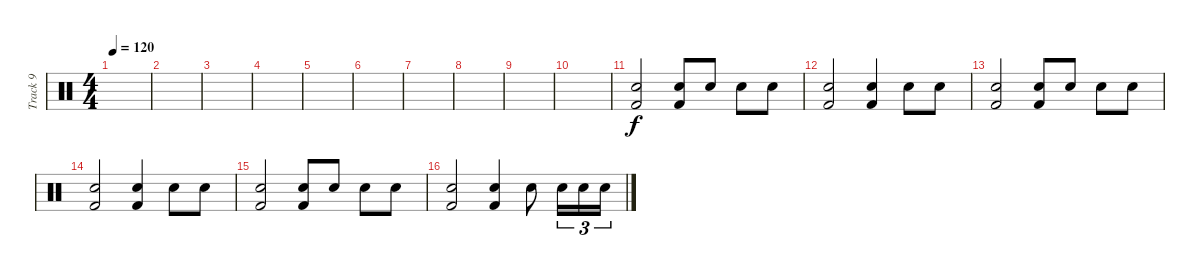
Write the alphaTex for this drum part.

\track ("Track 9" "Track 9") {instrument percussion}
\staff {score}
\articulation defaults
\ts (4 4)
\tempo 120
\clef neutral
\ks c
|
|
|
|
|
|
|
|
|
|
("Electric Snare (hit)" "Kick (hit) 2").2 ("Electric Snare (hit)" "Kick (hit) 2").8 "Electric Snare (hit)".8 "Electric Snare (hit)".8 "Electric Snare (hit)".8 |
("Electric Snare (hit)" "Kick (hit) 2").2 ("Electric Snare (hit)" "Kick (hit) 2").4 "Electric Snare (hit)".8 "Electric Snare (hit)".8 |
("Electric Snare (hit)" "Kick (hit) 2").2 ("Electric Snare (hit)" "Kick (hit) 2").8 "Electric Snare (hit)".8 "Electric Snare (hit)".8 "Electric Snare (hit)".8 |
("Electric Snare (hit)" "Kick (hit) 2").2 ("Electric Snare (hit)" "Kick (hit) 2").4 "Electric Snare (hit)".8 "Electric Snare (hit)".8 |
("Electric Snare (hit)" "Kick (hit) 2").2 ("Electric Snare (hit)" "Kick (hit) 2").8 "Electric Snare (hit)".8 "Electric Snare (hit)".8 "Electric Snare (hit)".8 |
("Electric Snare (hit)" "Kick (hit) 2").2 ("Electric Snare (hit)" "Kick (hit) 2").4 "Electric Snare (hit)".8 "Electric Snare (hit)".16{tu (3 2)} "Electric Snare (hit)".16{tu (3 2)} "Electric Snare (hit)".16{tu (3 2)}
